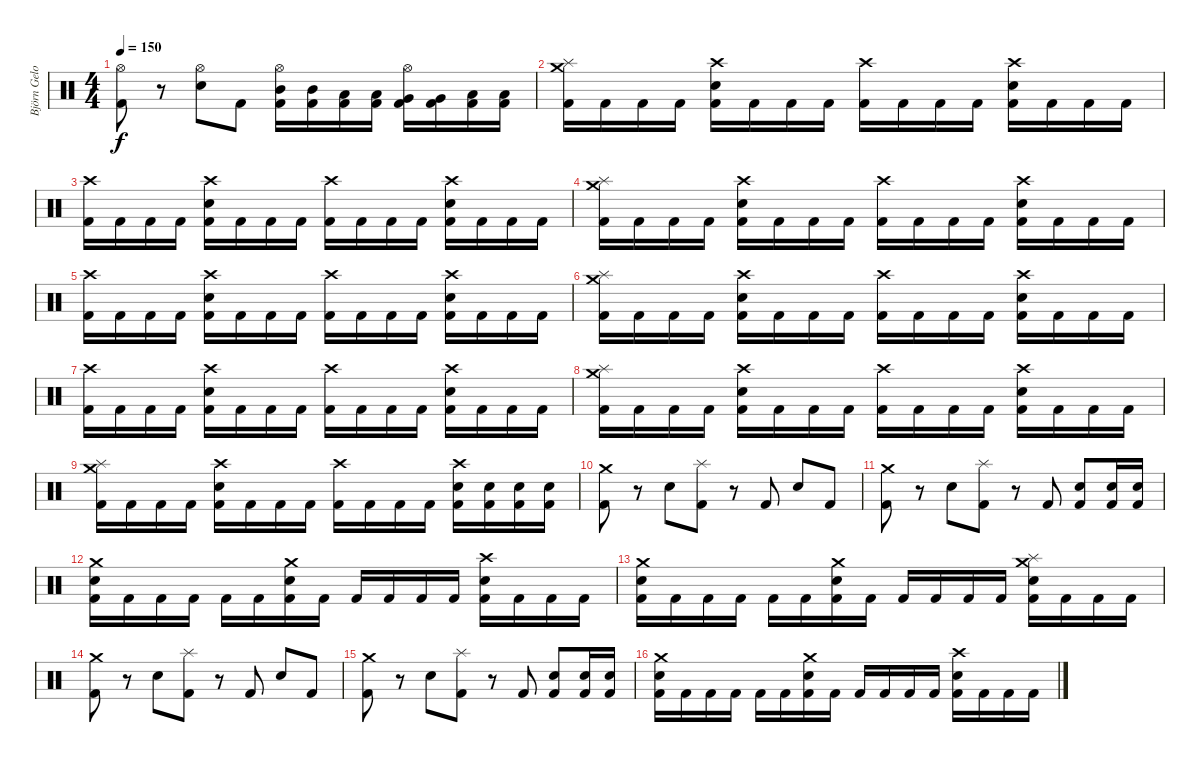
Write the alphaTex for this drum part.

\track ("Björn Gelotte" "Björn Gelo") {instrument percussion}
\staff {score}
\articulation defaults
\ts (4 4)
\tempo 150
\clef neutral
\ks c
("Hi-Hat (open)" "Kick (hit) 2").8{dy f} r.8 ("Hi-Hat (open)" "Electric Snare (hit)").8 "Kick (hit) 2".8 ("Hi-Hat (open)" "Mid Tom (hit)" "Kick (hit) 2").16 ("Mid Tom (hit)" "Kick (hit) 2").16 ("Low Tom (hit)" "Kick (hit) 2").16 ("Low Tom (hit)" "Kick (hit) 2").16 ("Hi-Hat (open)" "Very Low Tom (hit)" "Kick (hit) 2").16 ("Very Low Tom (hit)" "Kick (hit) 2").16 ("Low Floor Tom (hit)" "Kick (hit) 2").16 ("Low Floor Tom (hit)" "Kick (hit) 2").16 |
("Crash medium (hit)" "Splash (hit)" "Kick (hit) 2").16 "Kick (hit) 2".16 "Kick (hit) 2".16 "Kick (hit) 2".16 ("Crash high (hit)" "Electric Snare (hit)" "Kick (hit) 2").16 "Kick (hit) 2".16 "Kick (hit) 2".16 "Kick (hit) 2".16 ("Crash high (hit)" "Kick (hit) 2").16 "Kick (hit) 2".16 "Kick (hit) 2".16 "Kick (hit) 2".16 ("Crash high (hit)" "Electric Snare (hit)" "Kick (hit) 2").16 "Kick (hit) 2".16 "Kick (hit) 2".16 "Kick (hit) 2".16 |
("Crash high (hit)" "Kick (hit) 2").16 "Kick (hit) 2".16 "Kick (hit) 2".16 "Kick (hit) 2".16 ("Crash high (hit)" "Electric Snare (hit)" "Kick (hit) 2").16 "Kick (hit) 2".16 "Kick (hit) 2".16 "Kick (hit) 2".16 ("Crash high (hit)" "Kick (hit) 2").16 "Kick (hit) 2".16 "Kick (hit) 2".16 "Kick (hit) 2".16 ("Crash high (hit)" "Electric Snare (hit)" "Kick (hit) 2").16 "Kick (hit) 2".16 "Kick (hit) 2".16 "Kick (hit) 2".16 |
("Crash medium (hit)" "Splash (hit)" "Kick (hit) 2").16 "Kick (hit) 2".16 "Kick (hit) 2".16 "Kick (hit) 2".16 ("Crash high (hit)" "Electric Snare (hit)" "Kick (hit) 2").16 "Kick (hit) 2".16 "Kick (hit) 2".16 "Kick (hit) 2".16 ("Crash high (hit)" "Kick (hit) 2").16 "Kick (hit) 2".16 "Kick (hit) 2".16 "Kick (hit) 2".16 ("Crash high (hit)" "Electric Snare (hit)" "Kick (hit) 2").16 "Kick (hit) 2".16 "Kick (hit) 2".16 "Kick (hit) 2".16 |
("Crash high (hit)" "Kick (hit) 2").16 "Kick (hit) 2".16 "Kick (hit) 2".16 "Kick (hit) 2".16 ("Crash high (hit)" "Electric Snare (hit)" "Kick (hit) 2").16 "Kick (hit) 2".16 "Kick (hit) 2".16 "Kick (hit) 2".16 ("Crash high (hit)" "Kick (hit) 2").16 "Kick (hit) 2".16 "Kick (hit) 2".16 "Kick (hit) 2".16 ("Crash high (hit)" "Electric Snare (hit)" "Kick (hit) 2").16 "Kick (hit) 2".16 "Kick (hit) 2".16 "Kick (hit) 2".16 |
("Crash medium (hit)" "Splash (hit)" "Kick (hit) 2").16 "Kick (hit) 2".16 "Kick (hit) 2".16 "Kick (hit) 2".16 ("Crash high (hit)" "Electric Snare (hit)" "Kick (hit) 2").16 "Kick (hit) 2".16 "Kick (hit) 2".16 "Kick (hit) 2".16 ("Crash high (hit)" "Kick (hit) 2").16 "Kick (hit) 2".16 "Kick (hit) 2".16 "Kick (hit) 2".16 ("Crash high (hit)" "Electric Snare (hit)" "Kick (hit) 2").16 "Kick (hit) 2".16 "Kick (hit) 2".16 "Kick (hit) 2".16 |
("Crash high (hit)" "Kick (hit) 2").16 "Kick (hit) 2".16 "Kick (hit) 2".16 "Kick (hit) 2".16 ("Crash high (hit)" "Electric Snare (hit)" "Kick (hit) 2").16 "Kick (hit) 2".16 "Kick (hit) 2".16 "Kick (hit) 2".16 ("Crash high (hit)" "Kick (hit) 2").16 "Kick (hit) 2".16 "Kick (hit) 2".16 "Kick (hit) 2".16 ("Crash high (hit)" "Electric Snare (hit)" "Kick (hit) 2").16 "Kick (hit) 2".16 "Kick (hit) 2".16 "Kick (hit) 2".16 |
("Crash medium (hit)" "Splash (hit)" "Kick (hit) 2").16 "Kick (hit) 2".16 "Kick (hit) 2".16 "Kick (hit) 2".16 ("Crash high (hit)" "Electric Snare (hit)" "Kick (hit) 2").16 "Kick (hit) 2".16 "Kick (hit) 2".16 "Kick (hit) 2".16 ("Crash high (hit)" "Kick (hit) 2").16 "Kick (hit) 2".16 "Kick (hit) 2".16 "Kick (hit) 2".16 ("Crash high (hit)" "Electric Snare (hit)" "Kick (hit) 2").16 "Kick (hit) 2".16 "Kick (hit) 2".16 "Kick (hit) 2".16 |
("Crash medium (hit)" "Splash (hit)" "Kick (hit) 2").16 "Kick (hit) 2".16 "Kick (hit) 2".16 "Kick (hit) 2".16 ("Crash high (hit)" "Electric Snare (hit)" "Kick (hit) 2").16 "Kick (hit) 2".16 "Kick (hit) 2".16 "Kick (hit) 2".16 ("Crash high (hit)" "Kick (hit) 2").16 "Kick (hit) 2".16 "Kick (hit) 2".16 "Kick (hit) 2".16 ("Crash high (hit)" "Electric Snare (hit)" "Kick (hit) 2").16 ("Electric Snare (hit)" "Kick (hit) 2").16 ("Electric Snare (hit)" "Kick (hit) 2").16 ("Electric Snare (hit)" "Kick (hit) 2").16 |
("Crash medium (hit)" "Kick (hit) 2").8 r.8 "Electric Snare (hit)".8 ("Splash (hit)" "Kick (hit) 2").8 r.8 "Kick (hit) 2".8 "Electric Snare (hit)".8 "Kick (hit) 2".8 |
("Crash medium (hit)" "Kick (hit) 2").8 r.8 "Electric Snare (hit)".8 ("Splash (hit)" "Kick (hit) 2").8 r.8 "Kick (hit) 2".8 ("Electric Snare (hit)" "Kick (hit) 2").8 ("Electric Snare (hit)" "Kick (hit) 2").16 ("Electric Snare (hit)" "Kick (hit) 2").16 |
("Crash medium (hit)" "Electric Snare (hit)" "Kick (hit) 2").16 "Kick (hit) 2".16 "Kick (hit) 2".16 "Kick (hit) 2".16 "Kick (hit) 2".16 "Kick (hit) 2".16 ("Crash medium (hit)" "Electric Snare (hit)" "Kick (hit) 2").16 "Kick (hit) 2".16 "Kick (hit) 2".16 "Kick (hit) 2".16 "Kick (hit) 2".16 "Kick (hit) 2".16 ("Crash high (hit)" "Electric Snare (hit)" "Kick (hit) 2").16 "Kick (hit) 2".16 "Kick (hit) 2".16 "Kick (hit) 2".16 |
("Crash medium (hit)" "Electric Snare (hit)" "Kick (hit) 2").16 "Kick (hit) 2".16 "Kick (hit) 2".16 "Kick (hit) 2".16 "Kick (hit) 2".16 "Kick (hit) 2".16 ("Crash medium (hit)" "Electric Snare (hit)" "Kick (hit) 2").16 "Kick (hit) 2".16 "Kick (hit) 2".16 "Kick (hit) 2".16 "Kick (hit) 2".16 "Kick (hit) 2".16 ("Crash medium (hit)" "Splash (hit)" "Electric Snare (hit)" "Kick (hit) 2").16 "Kick (hit) 2".16 "Kick (hit) 2".16 "Kick (hit) 2".16 |
("Crash medium (hit)" "Kick (hit) 2").8 r.8 "Electric Snare (hit)".8 ("Splash (hit)" "Kick (hit) 2").8 r.8 "Kick (hit) 2".8 "Electric Snare (hit)".8 "Kick (hit) 2".8 |
("Crash medium (hit)" "Kick (hit) 2").8 r.8 "Electric Snare (hit)".8 ("Splash (hit)" "Kick (hit) 2").8 r.8 "Kick (hit) 2".8 ("Electric Snare (hit)" "Kick (hit) 2").8 ("Electric Snare (hit)" "Kick (hit) 2").16 ("Electric Snare (hit)" "Kick (hit) 2").16 |
("Crash medium (hit)" "Electric Snare (hit)" "Kick (hit) 2").16 "Kick (hit) 2".16 "Kick (hit) 2".16 "Kick (hit) 2".16 "Kick (hit) 2".16 "Kick (hit) 2".16 ("Crash medium (hit)" "Electric Snare (hit)" "Kick (hit) 2").16 "Kick (hit) 2".16 "Kick (hit) 2".16 "Kick (hit) 2".16 "Kick (hit) 2".16 "Kick (hit) 2".16 ("Crash high (hit)" "Electric Snare (hit)" "Kick (hit) 2").16 "Kick (hit) 2".16 "Kick (hit) 2".16 "Kick (hit) 2".16
